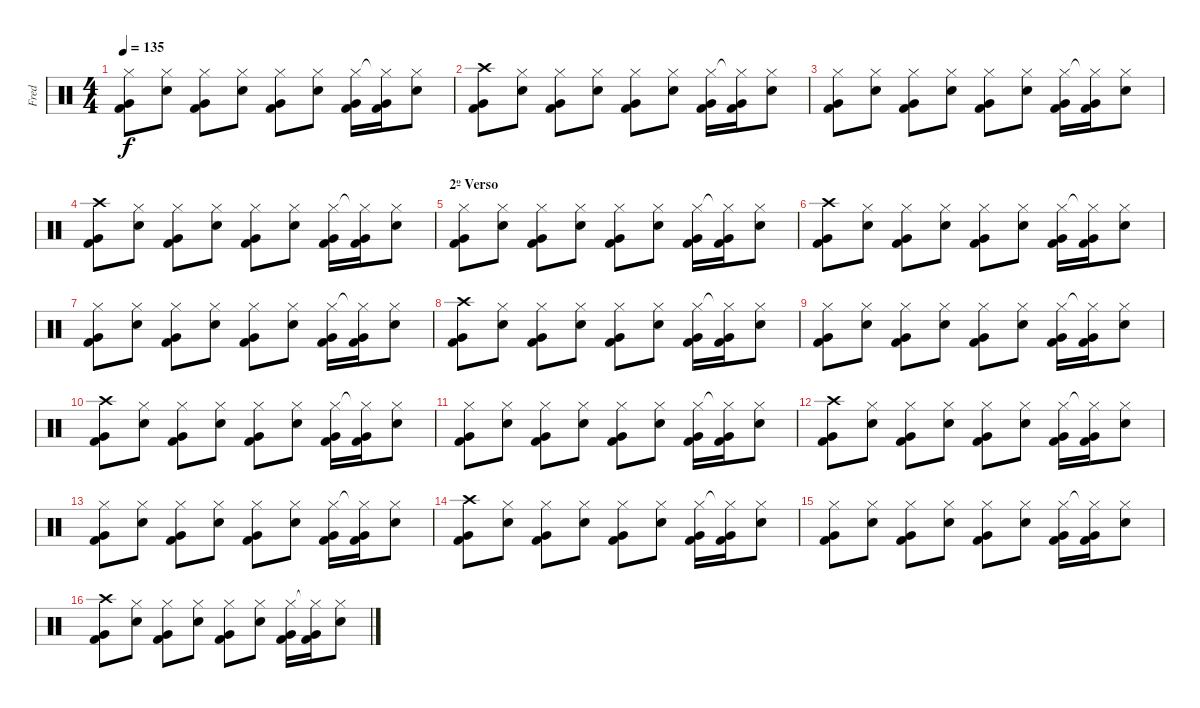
\track ("Fred" "Fred") {instrument percussion}
\staff {score}
\articulation defaults
\ts (4 4)
\tempo 135
\clef neutral
\ks c
("Very Low Tom (hit)" "Kick (hit) 2" "Hi-Hat (closed)").8{dy f} ("Snare (hit) 2" "Hi-Hat (closed)").8 ("Very Low Tom (hit)" "Kick (hit) 2" "Hi-Hat (closed)").8 ("Snare (hit) 2" "Hi-Hat (closed)").8 ("Very Low Tom (hit)" "Kick (hit) 2" "Hi-Hat (closed)").8 ("Snare (hit) 2" "Hi-Hat (closed)").8 ("Very Low Tom (hit)" "Kick (hit) 2" "Hi-Hat (closed)").16 ("Very Low Tom (hit)" "Kick (hit) 2" "Hi-Hat (closed)"{t}).16 ("Snare (hit) 2" "Hi-Hat (closed)").8 |
("Very Low Tom (hit)" "Kick (hit) 2" "Crash high (hit)").8 ("Snare (hit) 2" "Hi-Hat (closed)").8 ("Very Low Tom (hit)" "Kick (hit) 2" "Hi-Hat (closed)").8 ("Snare (hit) 2" "Hi-Hat (closed)").8 ("Very Low Tom (hit)" "Kick (hit) 2" "Hi-Hat (closed)").8 ("Snare (hit) 2" "Hi-Hat (closed)").8 ("Very Low Tom (hit)" "Kick (hit) 2" "Hi-Hat (closed)").16 ("Very Low Tom (hit)" "Kick (hit) 2" "Hi-Hat (closed)"{t}).16 ("Snare (hit) 2" "Hi-Hat (closed)").8 |
("Very Low Tom (hit)" "Kick (hit) 2" "Hi-Hat (closed)").8 ("Snare (hit) 2" "Hi-Hat (closed)").8 ("Very Low Tom (hit)" "Kick (hit) 2" "Hi-Hat (closed)").8 ("Snare (hit) 2" "Hi-Hat (closed)").8 ("Very Low Tom (hit)" "Kick (hit) 2" "Hi-Hat (closed)").8 ("Snare (hit) 2" "Hi-Hat (closed)").8 ("Very Low Tom (hit)" "Kick (hit) 2" "Hi-Hat (closed)").16 ("Very Low Tom (hit)" "Kick (hit) 2" "Hi-Hat (closed)"{t}).16 ("Snare (hit) 2" "Hi-Hat (closed)").8 |
("Very Low Tom (hit)" "Kick (hit) 2" "Crash high (hit)").8 ("Snare (hit) 2" "Hi-Hat (closed)").8 ("Very Low Tom (hit)" "Kick (hit) 2" "Hi-Hat (closed)").8 ("Snare (hit) 2" "Hi-Hat (closed)").8 ("Very Low Tom (hit)" "Kick (hit) 2" "Hi-Hat (closed)").8 ("Snare (hit) 2" "Hi-Hat (closed)").8 ("Very Low Tom (hit)" "Kick (hit) 2" "Hi-Hat (closed)").16 ("Very Low Tom (hit)" "Kick (hit) 2" "Hi-Hat (closed)"{t}).16 ("Snare (hit) 2" "Hi-Hat (closed)").8 |
\section ("" "2º Verso")
("Very Low Tom (hit)" "Kick (hit) 2" "Hi-Hat (closed)").8 ("Snare (hit) 2" "Hi-Hat (closed)").8 ("Very Low Tom (hit)" "Kick (hit) 2" "Hi-Hat (closed)").8 ("Snare (hit) 2" "Hi-Hat (closed)").8 ("Very Low Tom (hit)" "Kick (hit) 2" "Hi-Hat (closed)").8 ("Snare (hit) 2" "Hi-Hat (closed)").8 ("Very Low Tom (hit)" "Kick (hit) 2" "Hi-Hat (closed)").16 ("Very Low Tom (hit)" "Kick (hit) 2" "Hi-Hat (closed)"{t}).16 ("Snare (hit) 2" "Hi-Hat (closed)").8 |
("Very Low Tom (hit)" "Kick (hit) 2" "Crash high (hit)").8 ("Snare (hit) 2" "Hi-Hat (closed)").8 ("Very Low Tom (hit)" "Kick (hit) 2" "Hi-Hat (closed)").8 ("Snare (hit) 2" "Hi-Hat (closed)").8 ("Very Low Tom (hit)" "Kick (hit) 2" "Hi-Hat (closed)").8 ("Snare (hit) 2" "Hi-Hat (closed)").8 ("Very Low Tom (hit)" "Kick (hit) 2" "Hi-Hat (closed)").16 ("Very Low Tom (hit)" "Kick (hit) 2" "Hi-Hat (closed)"{t}).16 ("Snare (hit) 2" "Hi-Hat (closed)").8 |
("Very Low Tom (hit)" "Kick (hit) 2" "Hi-Hat (closed)").8 ("Snare (hit) 2" "Hi-Hat (closed)").8 ("Very Low Tom (hit)" "Kick (hit) 2" "Hi-Hat (closed)").8 ("Snare (hit) 2" "Hi-Hat (closed)").8 ("Very Low Tom (hit)" "Kick (hit) 2" "Hi-Hat (closed)").8 ("Snare (hit) 2" "Hi-Hat (closed)").8 ("Very Low Tom (hit)" "Kick (hit) 2" "Hi-Hat (closed)").16 ("Very Low Tom (hit)" "Kick (hit) 2" "Hi-Hat (closed)"{t}).16 ("Snare (hit) 2" "Hi-Hat (closed)").8 |
("Very Low Tom (hit)" "Kick (hit) 2" "Crash high (hit)").8 ("Snare (hit) 2" "Hi-Hat (closed)").8 ("Very Low Tom (hit)" "Kick (hit) 2" "Hi-Hat (closed)").8 ("Snare (hit) 2" "Hi-Hat (closed)").8 ("Very Low Tom (hit)" "Kick (hit) 2" "Hi-Hat (closed)").8 ("Snare (hit) 2" "Hi-Hat (closed)").8 ("Very Low Tom (hit)" "Kick (hit) 2" "Hi-Hat (closed)").16 ("Very Low Tom (hit)" "Kick (hit) 2" "Hi-Hat (closed)"{t}).16 ("Snare (hit) 2" "Hi-Hat (closed)").8 |
("Very Low Tom (hit)" "Kick (hit) 2" "Hi-Hat (closed)").8 ("Snare (hit) 2" "Hi-Hat (closed)").8 ("Very Low Tom (hit)" "Kick (hit) 2" "Hi-Hat (closed)").8 ("Snare (hit) 2" "Hi-Hat (closed)").8 ("Very Low Tom (hit)" "Kick (hit) 2" "Hi-Hat (closed)").8 ("Snare (hit) 2" "Hi-Hat (closed)").8 ("Very Low Tom (hit)" "Kick (hit) 2" "Hi-Hat (closed)").16 ("Very Low Tom (hit)" "Kick (hit) 2" "Hi-Hat (closed)"{t}).16 ("Snare (hit) 2" "Hi-Hat (closed)").8 |
("Very Low Tom (hit)" "Kick (hit) 2" "Crash high (hit)").8 ("Snare (hit) 2" "Hi-Hat (closed)").8 ("Very Low Tom (hit)" "Kick (hit) 2" "Hi-Hat (closed)").8 ("Snare (hit) 2" "Hi-Hat (closed)").8 ("Very Low Tom (hit)" "Kick (hit) 2" "Hi-Hat (closed)").8 ("Snare (hit) 2" "Hi-Hat (closed)").8 ("Very Low Tom (hit)" "Kick (hit) 2" "Hi-Hat (closed)").16 ("Very Low Tom (hit)" "Kick (hit) 2" "Hi-Hat (closed)"{t}).16 ("Snare (hit) 2" "Hi-Hat (closed)").8 |
("Very Low Tom (hit)" "Kick (hit) 2" "Hi-Hat (closed)").8 ("Snare (hit) 2" "Hi-Hat (closed)").8 ("Very Low Tom (hit)" "Kick (hit) 2" "Hi-Hat (closed)").8 ("Snare (hit) 2" "Hi-Hat (closed)").8 ("Very Low Tom (hit)" "Kick (hit) 2" "Hi-Hat (closed)").8 ("Snare (hit) 2" "Hi-Hat (closed)").8 ("Very Low Tom (hit)" "Kick (hit) 2" "Hi-Hat (closed)").16 ("Very Low Tom (hit)" "Kick (hit) 2" "Hi-Hat (closed)"{t}).16 ("Snare (hit) 2" "Hi-Hat (closed)").8 |
("Very Low Tom (hit)" "Kick (hit) 2" "Crash high (hit)").8 ("Snare (hit) 2" "Hi-Hat (closed)").8 ("Very Low Tom (hit)" "Kick (hit) 2" "Hi-Hat (closed)").8 ("Snare (hit) 2" "Hi-Hat (closed)").8 ("Very Low Tom (hit)" "Kick (hit) 2" "Hi-Hat (closed)").8 ("Snare (hit) 2" "Hi-Hat (closed)").8 ("Very Low Tom (hit)" "Kick (hit) 2" "Hi-Hat (closed)").16 ("Very Low Tom (hit)" "Kick (hit) 2" "Hi-Hat (closed)"{t}).16 ("Snare (hit) 2" "Hi-Hat (closed)").8 |
("Very Low Tom (hit)" "Kick (hit) 2" "Hi-Hat (closed)").8 ("Snare (hit) 2" "Hi-Hat (closed)").8 ("Very Low Tom (hit)" "Kick (hit) 2" "Hi-Hat (closed)").8 ("Snare (hit) 2" "Hi-Hat (closed)").8 ("Very Low Tom (hit)" "Kick (hit) 2" "Hi-Hat (closed)").8 ("Snare (hit) 2" "Hi-Hat (closed)").8 ("Very Low Tom (hit)" "Kick (hit) 2" "Hi-Hat (closed)").16 ("Very Low Tom (hit)" "Kick (hit) 2" "Hi-Hat (closed)"{t}).16 ("Snare (hit) 2" "Hi-Hat (closed)").8 |
("Very Low Tom (hit)" "Kick (hit) 2" "Crash high (hit)").8 ("Snare (hit) 2" "Hi-Hat (closed)").8 ("Very Low Tom (hit)" "Kick (hit) 2" "Hi-Hat (closed)").8 ("Snare (hit) 2" "Hi-Hat (closed)").8 ("Very Low Tom (hit)" "Kick (hit) 2" "Hi-Hat (closed)").8 ("Snare (hit) 2" "Hi-Hat (closed)").8 ("Very Low Tom (hit)" "Kick (hit) 2" "Hi-Hat (closed)").16 ("Very Low Tom (hit)" "Kick (hit) 2" "Hi-Hat (closed)"{t}).16 ("Snare (hit) 2" "Hi-Hat (closed)").8 |
("Very Low Tom (hit)" "Kick (hit) 2" "Hi-Hat (closed)").8 ("Snare (hit) 2" "Hi-Hat (closed)").8 ("Very Low Tom (hit)" "Kick (hit) 2" "Hi-Hat (closed)").8 ("Snare (hit) 2" "Hi-Hat (closed)").8 ("Very Low Tom (hit)" "Kick (hit) 2" "Hi-Hat (closed)").8 ("Snare (hit) 2" "Hi-Hat (closed)").8 ("Very Low Tom (hit)" "Kick (hit) 2" "Hi-Hat (closed)").16 ("Very Low Tom (hit)" "Kick (hit) 2" "Hi-Hat (closed)"{t}).16 ("Snare (hit) 2" "Hi-Hat (closed)").8 |
("Very Low Tom (hit)" "Kick (hit) 2" "Crash high (hit)").8 ("Snare (hit) 2" "Hi-Hat (closed)").8 ("Very Low Tom (hit)" "Kick (hit) 2" "Hi-Hat (closed)").8 ("Snare (hit) 2" "Hi-Hat (closed)").8 ("Very Low Tom (hit)" "Kick (hit) 2" "Hi-Hat (closed)").8 ("Snare (hit) 2" "Hi-Hat (closed)").8 ("Very Low Tom (hit)" "Kick (hit) 2" "Hi-Hat (closed)").16 ("Very Low Tom (hit)" "Kick (hit) 2" "Hi-Hat (closed)"{t}).16 ("Snare (hit) 2" "Hi-Hat (closed)").8
